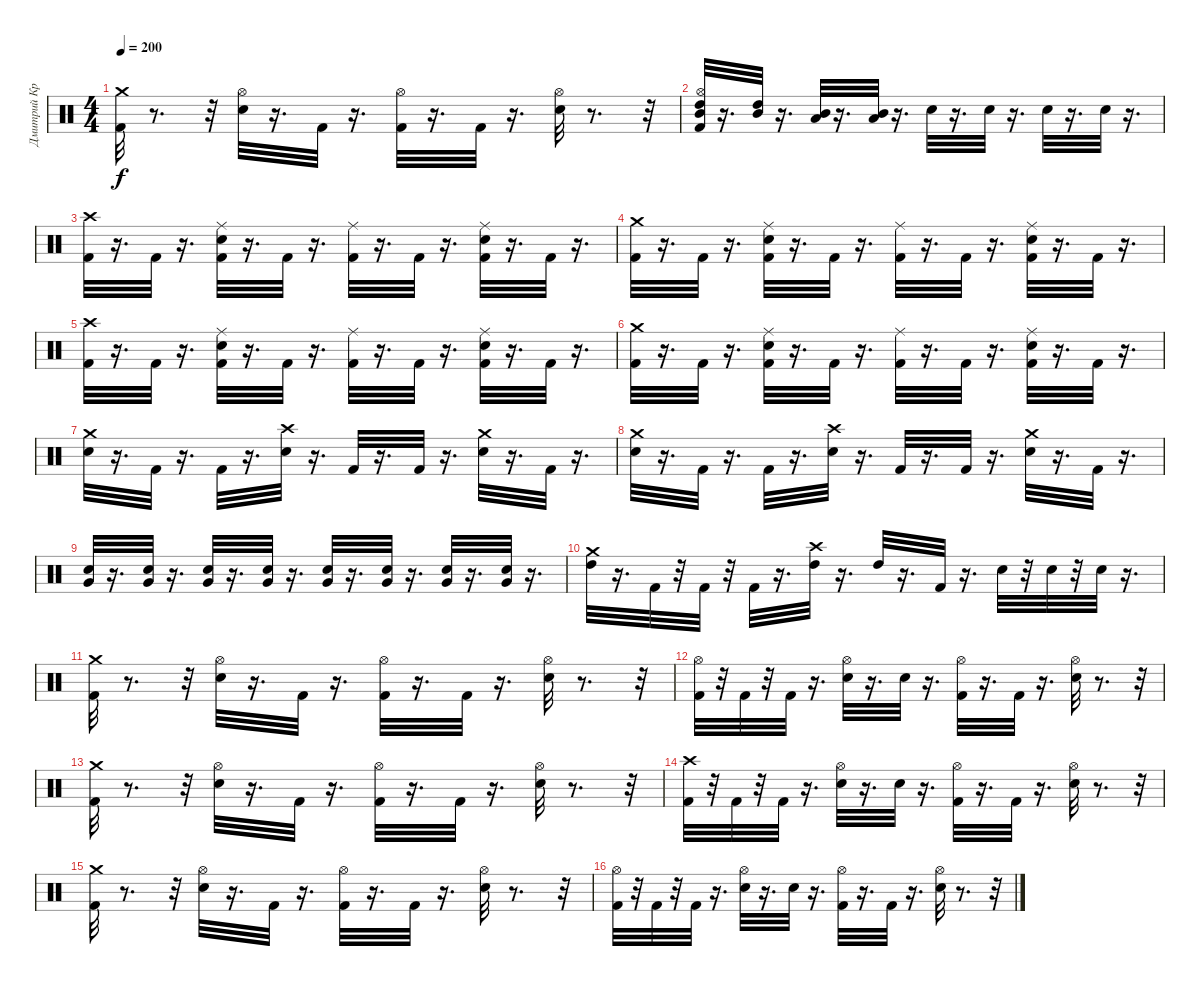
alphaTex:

\track ("Дмитрий Кривенков" "Дмитрий Кр") {instrument percussion}
\staff {score}
\articulation defaults
\ts (4 4)
\tempo 200
\clef neutral
\ks c
("Crash medium (hit)" "Kick (hit) 2").32{dy f} r.8{d} r.32 ("Hi-Hat (open)" "Electric Snare (hit)").32 r.16{d} "Kick (hit) 2".32 r.16{d} ("Hi-Hat (open)" "Kick (hit) 2").32 r.16{d} "Kick (hit) 2".32 r.16{d} ("Hi-Hat (open)" "Electric Snare (hit)").32 r.8{d} r.32 |
("Mid Tom (hit)" "High Tom (hit)" "Hi-Hat (open)" "Kick (hit) 2").32 r.16{d} ("Mid Tom (hit)" "High Tom (hit)").32 r.16{d} ("Low Tom (hit)" "Mid Tom (hit)").32 r.16{d} ("Low Tom (hit)" "Mid Tom (hit)").32 r.16{d} "Electric Snare (hit)".32 r.16{d} "Electric Snare (hit)".32 r.16{d} "Electric Snare (hit)".32 r.16{d} "Electric Snare (hit)".32 r.16{d} |
("Crash high (hit)" "Kick (hit) 2").32 r.16{d} "Kick (hit) 2".32 r.16{d} ("Ride (middle)" "Electric Snare (hit)" "Kick (hit) 2").32 r.16{d} "Kick (hit) 2".32 r.16{d} ("Ride (middle)" "Kick (hit) 2").32 r.16{d} "Kick (hit) 2".32 r.16{d} ("Ride (middle)" "Kick (hit) 2" "Electric Snare (hit)").32 r.16{d} "Kick (hit) 2".32 r.16{d} |
("Crash medium (hit)" "Kick (hit) 2").32 r.16{d} "Kick (hit) 2".32 r.16{d} ("Electric Snare (hit)" "Kick (hit) 2" "Ride (middle)").32 r.16{d} "Kick (hit) 2".32 r.16{d} ("Ride (middle)" "Kick (hit) 2").32 r.16{d} "Kick (hit) 2".32 r.16{d} ("Ride (middle)" "Kick (hit) 2" "Electric Snare (hit)").32 r.16{d} "Kick (hit) 2".32 r.16{d} |
("Crash high (hit)" "Kick (hit) 2").32 r.16{d} "Kick (hit) 2".32 r.16{d} ("Ride (middle)" "Electric Snare (hit)" "Kick (hit) 2").32 r.16{d} "Kick (hit) 2".32 r.16{d} ("Ride (middle)" "Kick (hit) 2").32 r.16{d} "Kick (hit) 2".32 r.16{d} ("Ride (middle)" "Kick (hit) 2" "Electric Snare (hit)").32 r.16{d} "Kick (hit) 2".32 r.16{d} |
("Crash medium (hit)" "Kick (hit) 2").32 r.16{d} "Kick (hit) 2".32 r.16{d} ("Electric Snare (hit)" "Kick (hit) 2" "Ride (middle)").32 r.16{d} "Kick (hit) 2".32 r.16{d} ("Ride (middle)" "Kick (hit) 2").32 r.16{d} "Kick (hit) 2".32 r.16{d} ("Ride (middle)" "Kick (hit) 2" "Electric Snare (hit)").32 r.16{d} "Kick (hit) 2".32 r.16{d} |
("Crash medium (hit)" "Electric Snare (hit)").32 r.16{d} "Kick (hit) 2".32 r.16{d} "Kick (hit) 2".32 r.16{d} ("Electric Snare (hit)" "Crash high (hit)").32 r.16{d} "Kick (hit) 2".32 r.16{d} "Kick (hit) 2".32 r.16{d} ("Electric Snare (hit)" "Crash medium (hit)").32 r.16{d} "Kick (hit) 2".32 r.16{d} |
("Electric Snare (hit)" "Crash medium (hit)").32 r.16{d} "Kick (hit) 2".32 r.16{d} "Kick (hit) 2".32 r.16{d} ("Electric Snare (hit)" "Crash high (hit)").32 r.16{d} "Kick (hit) 2".32 r.16{d} "Kick (hit) 2".32 r.16{d} ("Electric Snare (hit)" "Crash medium (hit)").32 r.16{d} "Kick (hit) 2".32 r.16{d} |
("Electric Snare (hit)" "Very Low Tom (hit)").32 r.16{d} ("Electric Snare (hit)" "Very Low Tom (hit)").32 r.16{d} ("Electric Snare (hit)" "Very Low Tom (hit)").32 r.16{d} ("Electric Snare (hit)" "Very Low Tom (hit)").32 r.16{d} ("Electric Snare (hit)" "Very Low Tom (hit)").32 r.16{d} ("Electric Snare (hit)" "Very Low Tom (hit)").32 r.16{d} ("Electric Snare (hit)" "Very Low Tom (hit)").32 r.16{d} ("Electric Snare (hit)" "Very Low Tom (hit)").32 r.16{d} |
("High Tom (hit)" "Crash medium (hit)").32 r.16{d} "Kick (hit) 2".32 r.32 "Kick (hit) 2".32 r.32 "Kick (hit) 2".32 r.16{d} ("Crash high (hit)" "High Tom (hit)").32 r.16{d} "High Tom (hit)".32 r.16{d} "Kick (hit) 2".32 r.16{d} "Electric Snare (hit)".32 r.32 "Electric Snare (hit)".32 r.32 "Electric Snare (hit)".32 r.16{d} |
("Crash medium (hit)" "Kick (hit) 2").32 r.8{d} r.32 ("Hi-Hat (open)" "Electric Snare (hit)").32 r.16{d} "Kick (hit) 2".32 r.16{d} ("Hi-Hat (open)" "Kick (hit) 2").32 r.16{d} "Kick (hit) 2".32 r.16{d} ("Hi-Hat (open)" "Electric Snare (hit)").32 r.8{d} r.32 |
("Hi-Hat (open)" "Kick (hit) 2").32 r.32 "Kick (hit) 2".32 r.32 "Kick (hit) 2".32 r.16{d} ("Hi-Hat (open)" "Electric Snare (hit)").32 r.16{d} "Electric Snare (hit)".32 r.16{d} ("Hi-Hat (open)" "Kick (hit) 2").32 r.16{d} "Kick (hit) 2".32 r.16{d} ("Hi-Hat (open)" "Electric Snare (hit)").32 r.8{d} r.32 |
("Crash medium (hit)" "Kick (hit) 2").32 r.8{d} r.32 ("Hi-Hat (open)" "Electric Snare (hit)").32 r.16{d} "Kick (hit) 2".32 r.16{d} ("Hi-Hat (open)" "Kick (hit) 2").32 r.16{d} "Kick (hit) 2".32 r.16{d} ("Hi-Hat (open)" "Electric Snare (hit)").32 r.8{d} r.32 |
("Crash high (hit)" "Kick (hit) 2").32 r.32 "Kick (hit) 2".32 r.32 "Kick (hit) 2".32 r.16{d} ("Hi-Hat (open)" "Electric Snare (hit)").32 r.16{d} "Electric Snare (hit)".32 r.16{d} ("Hi-Hat (open)" "Kick (hit) 2").32 r.16{d} "Kick (hit) 2".32 r.16{d} ("Hi-Hat (open)" "Electric Snare (hit)").32 r.8{d} r.32 |
("Crash medium (hit)" "Kick (hit) 2").32 r.8{d} r.32 ("Hi-Hat (open)" "Electric Snare (hit)").32 r.16{d} "Kick (hit) 2".32 r.16{d} ("Hi-Hat (open)" "Kick (hit) 2").32 r.16{d} "Kick (hit) 2".32 r.16{d} ("Hi-Hat (open)" "Electric Snare (hit)").32 r.8{d} r.32 |
("Hi-Hat (open)" "Kick (hit) 2").32 r.32 "Kick (hit) 2".32 r.32 "Kick (hit) 2".32 r.16{d} ("Hi-Hat (open)" "Electric Snare (hit)").32 r.16{d} "Electric Snare (hit)".32 r.16{d} ("Hi-Hat (open)" "Kick (hit) 2").32 r.16{d} "Kick (hit) 2".32 r.16{d} ("Hi-Hat (open)" "Electric Snare (hit)").32 r.8{d} r.32
